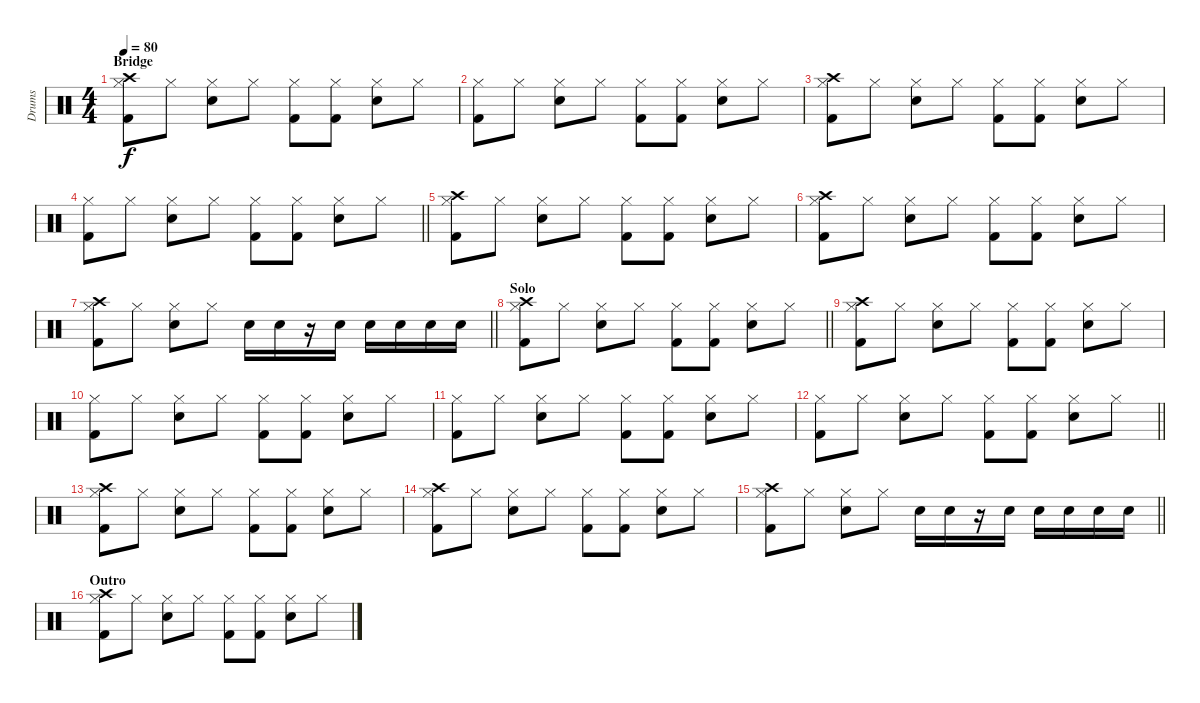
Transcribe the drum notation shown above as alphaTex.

\track ("Drums" "Drums") {instrument percussion}
\staff {score}
\articulation defaults
\ts (4 4)
\section ("" "Bridge")
\tempo 80
\clef neutral
\ks c
("Hi-Hat (closed)" "Crash high (hit)" "Kick (hit) 2").8{dy f} "Hi-Hat (closed)".8 ("Hi-Hat (closed)" "Snare (hit) 2").8 "Hi-Hat (closed)".8 ("Hi-Hat (closed)" "Kick (hit) 2").8 ("Hi-Hat (closed)" "Kick (hit) 2").8 ("Hi-Hat (closed)" "Snare (hit) 2").8 "Hi-Hat (closed)".8 |
("Hi-Hat (closed)" "Kick (hit) 2").8 "Hi-Hat (closed)".8 ("Hi-Hat (closed)" "Snare (hit) 2").8 "Hi-Hat (closed)".8 ("Hi-Hat (closed)" "Kick (hit) 2").8 ("Hi-Hat (closed)" "Kick (hit) 2").8 ("Hi-Hat (closed)" "Snare (hit) 2").8 "Hi-Hat (closed)".8 |
("Hi-Hat (closed)" "Crash high (hit)" "Kick (hit) 2").8 "Hi-Hat (closed)".8 ("Hi-Hat (closed)" "Snare (hit) 2").8 "Hi-Hat (closed)".8 ("Hi-Hat (closed)" "Kick (hit) 2").8 ("Hi-Hat (closed)" "Kick (hit) 2").8 ("Hi-Hat (closed)" "Snare (hit) 2").8 "Hi-Hat (closed)".8 |
\barLineRight lightlight
("Hi-Hat (closed)" "Kick (hit) 2").8 "Hi-Hat (closed)".8 ("Hi-Hat (closed)" "Snare (hit) 2").8 "Hi-Hat (closed)".8 ("Hi-Hat (closed)" "Kick (hit) 2").8 ("Hi-Hat (closed)" "Kick (hit) 2").8 ("Hi-Hat (closed)" "Snare (hit) 2").8 "Hi-Hat (closed)".8 |
("Hi-Hat (closed)" "Crash high (hit)" "Kick (hit) 2").8 "Hi-Hat (closed)".8 ("Hi-Hat (closed)" "Snare (hit) 2").8 "Hi-Hat (closed)".8 ("Hi-Hat (closed)" "Kick (hit) 2").8 ("Hi-Hat (closed)" "Kick (hit) 2").8 ("Hi-Hat (closed)" "Snare (hit) 2").8 "Hi-Hat (closed)".8 |
("Hi-Hat (closed)" "Crash high (hit)" "Kick (hit) 2").8 "Hi-Hat (closed)".8 ("Hi-Hat (closed)" "Snare (hit) 2").8 "Hi-Hat (closed)".8 ("Hi-Hat (closed)" "Kick (hit) 2").8 ("Hi-Hat (closed)" "Kick (hit) 2").8 ("Hi-Hat (closed)" "Snare (hit) 2").8 "Hi-Hat (closed)".8 |
\barLineRight lightlight
("Hi-Hat (closed)" "Crash high (hit)" "Kick (hit) 2").8 "Hi-Hat (closed)".8 ("Hi-Hat (closed)" "Snare (hit) 2").8 "Hi-Hat (closed)".8 "Snare (hit) 2".16 "Snare (hit) 2".16 r.16 "Snare (hit) 2".16 "Snare (hit) 2".16 "Snare (hit) 2".16 "Snare (hit) 2".16 "Snare (hit) 2".16 |
\section ("" "Solo")
\barLineRight lightlight
("Hi-Hat (closed)" "Crash high (hit)" "Kick (hit) 2").8 "Hi-Hat (closed)".8 ("Hi-Hat (closed)" "Snare (hit) 2").8 "Hi-Hat (closed)".8 ("Hi-Hat (closed)" "Kick (hit) 2").8 ("Hi-Hat (closed)" "Kick (hit) 2").8 ("Hi-Hat (closed)" "Snare (hit) 2").8 "Hi-Hat (closed)".8 |
("Hi-Hat (closed)" "Crash high (hit)" "Kick (hit) 2").8 "Hi-Hat (closed)".8 ("Hi-Hat (closed)" "Snare (hit) 2").8 "Hi-Hat (closed)".8 ("Hi-Hat (closed)" "Kick (hit) 2").8 ("Hi-Hat (closed)" "Kick (hit) 2").8 ("Hi-Hat (closed)" "Snare (hit) 2").8 "Hi-Hat (closed)".8 |
("Hi-Hat (closed)" "Kick (hit) 2").8 "Hi-Hat (closed)".8 ("Hi-Hat (closed)" "Snare (hit) 2").8 "Hi-Hat (closed)".8 ("Hi-Hat (closed)" "Kick (hit) 2").8 ("Hi-Hat (closed)" "Kick (hit) 2").8 ("Hi-Hat (closed)" "Snare (hit) 2").8 "Hi-Hat (closed)".8 |
("Hi-Hat (closed)" "Kick (hit) 2").8 "Hi-Hat (closed)".8 ("Hi-Hat (closed)" "Snare (hit) 2").8 "Hi-Hat (closed)".8 ("Hi-Hat (closed)" "Kick (hit) 2").8 ("Hi-Hat (closed)" "Kick (hit) 2").8 ("Hi-Hat (closed)" "Snare (hit) 2").8 "Hi-Hat (closed)".8 |
\barLineRight lightlight
("Hi-Hat (closed)" "Kick (hit) 2").8 "Hi-Hat (closed)".8 ("Hi-Hat (closed)" "Snare (hit) 2").8 "Hi-Hat (closed)".8 ("Hi-Hat (closed)" "Kick (hit) 2").8 ("Hi-Hat (closed)" "Kick (hit) 2").8 ("Hi-Hat (closed)" "Snare (hit) 2").8 "Hi-Hat (closed)".8 |
("Hi-Hat (closed)" "Crash high (hit)" "Kick (hit) 2").8 "Hi-Hat (closed)".8 ("Hi-Hat (closed)" "Snare (hit) 2").8 "Hi-Hat (closed)".8 ("Hi-Hat (closed)" "Kick (hit) 2").8 ("Hi-Hat (closed)" "Kick (hit) 2").8 ("Hi-Hat (closed)" "Snare (hit) 2").8 "Hi-Hat (closed)".8 |
("Hi-Hat (closed)" "Crash high (hit)" "Kick (hit) 2").8 "Hi-Hat (closed)".8 ("Hi-Hat (closed)" "Snare (hit) 2").8 "Hi-Hat (closed)".8 ("Hi-Hat (closed)" "Kick (hit) 2").8 ("Hi-Hat (closed)" "Kick (hit) 2").8 ("Hi-Hat (closed)" "Snare (hit) 2").8 "Hi-Hat (closed)".8 |
\barLineRight lightlight
("Hi-Hat (closed)" "Crash high (hit)" "Kick (hit) 2").8 "Hi-Hat (closed)".8 ("Hi-Hat (closed)" "Snare (hit) 2").8 "Hi-Hat (closed)".8 "Snare (hit) 2".16 "Snare (hit) 2".16 r.16 "Snare (hit) 2".16 "Snare (hit) 2".16 "Snare (hit) 2".16 "Snare (hit) 2".16 "Snare (hit) 2".16 |
\section ("" "Outro")
("Hi-Hat (closed)" "Crash high (hit)" "Kick (hit) 2").8 "Hi-Hat (closed)".8 ("Hi-Hat (closed)" "Snare (hit) 2").8 "Hi-Hat (closed)".8 ("Hi-Hat (closed)" "Kick (hit) 2").8 ("Hi-Hat (closed)" "Kick (hit) 2").8 ("Hi-Hat (closed)" "Snare (hit) 2").8 "Hi-Hat (closed)".8
